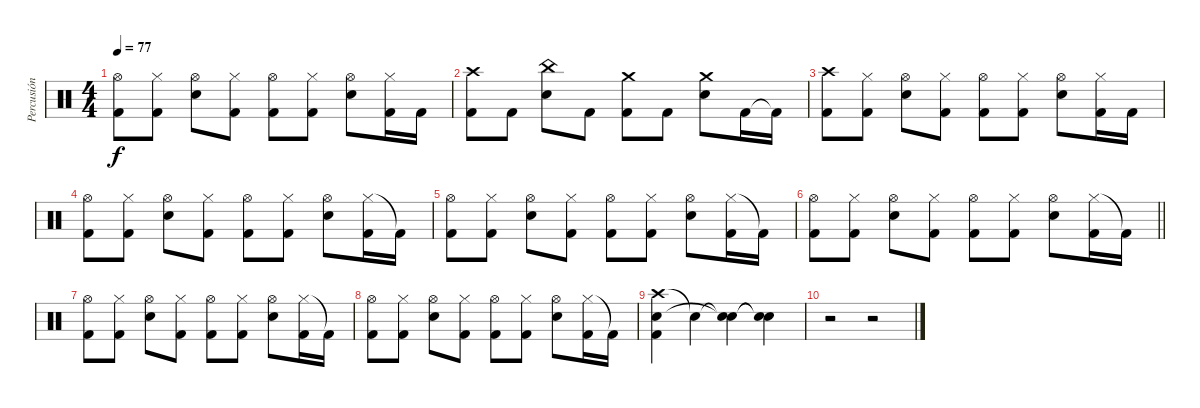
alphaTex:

\track ("Percusión" "Percusión") {instrument percussion}
\staff {score}
\articulation defaults
\ts (4 4)
\tempo 77
\clef neutral
\ks c
("Hi-Hat (open)" "Kick (hit) 2").8{dy f} ("Hi-Hat (closed)" "Kick (hit) 2").8 ("Hi-Hat (open)" "Electric Snare (hit)").8 ("Hi-Hat (closed)" "Kick (hit) 2").8 ("Hi-Hat (open)" "Kick (hit) 2").8 ("Hi-Hat (closed)" "Kick (hit) 2").8 ("Hi-Hat (open)" "Electric Snare (hit)").8 ("Hi-Hat (closed)" "Kick (hit) 2").16 "Kick (hit) 2".16 |
("Crash high (hit)" "Kick (hit) 2").8 "Kick (hit) 2".8 ("China (hit)" "Electric Snare (hit)").8 "Kick (hit) 2".8 ("Crash medium (hit)" "Kick (hit) 2").8 "Kick (hit) 2".8 ("Crash medium (hit)" "Electric Snare (hit)").8 "Kick (hit) 2".16 "Kick (hit) 2"{t}.16 |
("Crash high (hit)" "Kick (hit) 2").8 ("Hi-Hat (closed)" "Kick (hit) 2").8 ("Hi-Hat (open)" "Electric Snare (hit)").8 ("Hi-Hat (closed)" "Kick (hit) 2").8 ("Hi-Hat (open)" "Kick (hit) 2").8 ("Hi-Hat (closed)" "Kick (hit) 2").8 ("Hi-Hat (open)" "Electric Snare (hit)").8 ("Hi-Hat (closed)" "Kick (hit) 2").16 "Kick (hit) 2".16 |
("Hi-Hat (open)" "Kick (hit) 2").8 ("Hi-Hat (closed)" "Kick (hit) 2").8 ("Hi-Hat (open)" "Electric Snare (hit)").8 ("Hi-Hat (closed)" "Kick (hit) 2").8 ("Hi-Hat (open)" "Kick (hit) 2").8 ("Hi-Hat (closed)" "Kick (hit) 2").8 ("Hi-Hat (open)" "Electric Snare (hit)").8 ("Hi-Hat (closed)" "Kick (hit) 2").16 "Kick (hit) 2"{t}.16 |
("Hi-Hat (open)" "Kick (hit) 2").8 ("Hi-Hat (closed)" "Kick (hit) 2").8 ("Hi-Hat (open)" "Electric Snare (hit)").8 ("Hi-Hat (closed)" "Kick (hit) 2").8 ("Hi-Hat (open)" "Kick (hit) 2").8 ("Hi-Hat (closed)" "Kick (hit) 2").8 ("Hi-Hat (open)" "Electric Snare (hit)").8 ("Hi-Hat (closed)" "Kick (hit) 2").16 "Kick (hit) 2"{t}.16 |
\barLineRight lightlight
("Hi-Hat (open)" "Kick (hit) 2").8 ("Hi-Hat (closed)" "Kick (hit) 2").8 ("Hi-Hat (open)" "Electric Snare (hit)").8 ("Hi-Hat (closed)" "Kick (hit) 2").8 ("Hi-Hat (open)" "Kick (hit) 2").8 ("Hi-Hat (closed)" "Kick (hit) 2").8 ("Hi-Hat (open)" "Electric Snare (hit)").8 ("Hi-Hat (closed)" "Kick (hit) 2").16 "Kick (hit) 2"{t}.16 |
("Hi-Hat (open)" "Kick (hit) 2").8 ("Hi-Hat (closed)" "Kick (hit) 2").8 ("Hi-Hat (open)" "Electric Snare (hit)").8 ("Hi-Hat (closed)" "Kick (hit) 2").8 ("Hi-Hat (open)" "Kick (hit) 2").8 ("Hi-Hat (closed)" "Kick (hit) 2").8 ("Hi-Hat (open)" "Electric Snare (hit)").8 ("Hi-Hat (closed)" "Kick (hit) 2").16 "Kick (hit) 2"{t}.16 |
("Hi-Hat (open)" "Kick (hit) 2").8 ("Hi-Hat (closed)" "Kick (hit) 2").8 ("Hi-Hat (open)" "Electric Snare (hit)").8 ("Hi-Hat (closed)" "Kick (hit) 2").8 ("Hi-Hat (open)" "Kick (hit) 2").8 ("Hi-Hat (closed)" "Kick (hit) 2").8 ("Hi-Hat (open)" "Electric Snare (hit)").8 ("Hi-Hat (closed)" "Kick (hit) 2").16 "Kick (hit) 2"{t}.16 |
("Crash high (hit)" "Electric Snare (hit)" "Kick (hit) 2").4 "Snare (hit)"{t}.4 ("Snare (hit)"{t} "Snare (hit)"{t}).4{volume 10} ("Snare (hit)"{t} "Snare (hit)"{t}).4 |
r.2 r.2
